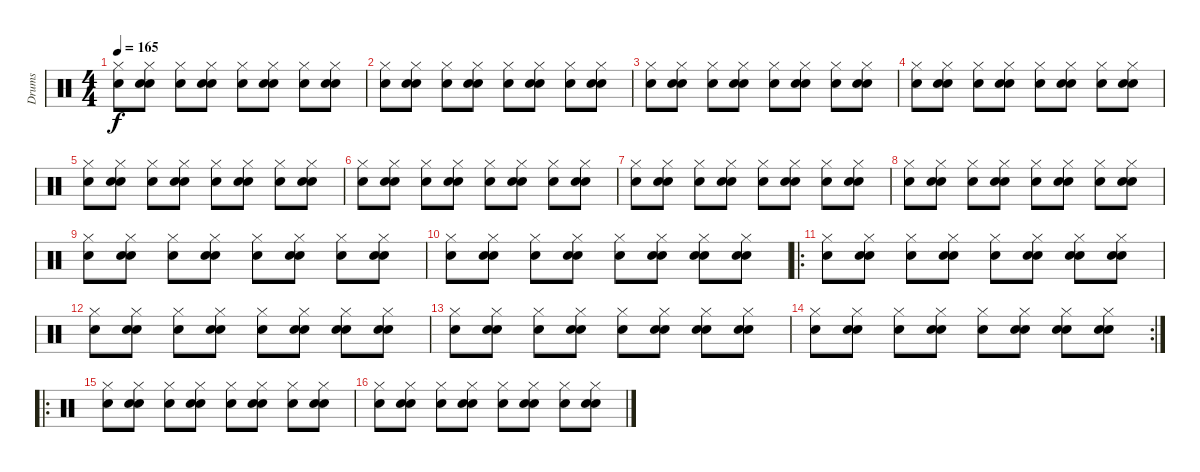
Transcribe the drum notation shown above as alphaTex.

\track ("Drums" "Drums") {instrument percussion}
\staff {score}
\articulation defaults
\ts (4 4)
\tempo 165
\clef neutral
\ks c
("Hi-Hat (closed)" "Electric Snare (hit)").8{dy f} ("Snare (hit) 2" "Electric Snare (hit)" "Hi-Hat (closed)").8 ("Hi-Hat (closed)" "Electric Snare (hit)").8 ("Snare (hit) 2" "Hi-Hat (closed)" "Electric Snare (hit)").8 ("Hi-Hat (closed)" "Electric Snare (hit)").8 ("Snare (hit) 2" "Hi-Hat (closed)" "Electric Snare (hit)").8 ("Hi-Hat (closed)" "Electric Snare (hit)").8 ("Snare (hit) 2" "Hi-Hat (closed)" "Electric Snare (hit)").8 |
("Hi-Hat (closed)" "Electric Snare (hit)").8 ("Snare (hit) 2" "Electric Snare (hit)" "Hi-Hat (closed)").8 ("Hi-Hat (closed)" "Electric Snare (hit)").8 ("Snare (hit) 2" "Hi-Hat (closed)" "Electric Snare (hit)").8 ("Hi-Hat (closed)" "Electric Snare (hit)").8 ("Snare (hit) 2" "Hi-Hat (closed)" "Electric Snare (hit)").8 ("Hi-Hat (closed)" "Electric Snare (hit)").8 ("Snare (hit) 2" "Hi-Hat (closed)" "Electric Snare (hit)").8 |
("Hi-Hat (closed)" "Electric Snare (hit)").8 ("Snare (hit) 2" "Electric Snare (hit)" "Hi-Hat (closed)").8 ("Hi-Hat (closed)" "Electric Snare (hit)").8 ("Snare (hit) 2" "Hi-Hat (closed)" "Electric Snare (hit)").8 ("Hi-Hat (closed)" "Electric Snare (hit)").8 ("Snare (hit) 2" "Hi-Hat (closed)" "Electric Snare (hit)").8 ("Hi-Hat (closed)" "Electric Snare (hit)").8 ("Snare (hit) 2" "Hi-Hat (closed)" "Electric Snare (hit)").8 |
("Hi-Hat (closed)" "Electric Snare (hit)").8 ("Snare (hit) 2" "Electric Snare (hit)" "Hi-Hat (closed)").8 ("Hi-Hat (closed)" "Electric Snare (hit)").8 ("Snare (hit) 2" "Hi-Hat (closed)" "Electric Snare (hit)").8 ("Hi-Hat (closed)" "Electric Snare (hit)").8 ("Snare (hit) 2" "Hi-Hat (closed)" "Electric Snare (hit)").8 ("Hi-Hat (closed)" "Electric Snare (hit)").8 ("Snare (hit) 2" "Hi-Hat (closed)" "Electric Snare (hit)").8 |
("Hi-Hat (closed)" "Electric Snare (hit)").8 ("Snare (hit) 2" "Electric Snare (hit)" "Hi-Hat (closed)").8 ("Hi-Hat (closed)" "Electric Snare (hit)").8 ("Snare (hit) 2" "Hi-Hat (closed)" "Electric Snare (hit)").8 ("Hi-Hat (closed)" "Electric Snare (hit)").8 ("Snare (hit) 2" "Hi-Hat (closed)" "Electric Snare (hit)").8 ("Hi-Hat (closed)" "Electric Snare (hit)").8 ("Snare (hit) 2" "Hi-Hat (closed)" "Electric Snare (hit)").8 |
("Hi-Hat (closed)" "Electric Snare (hit)").8 ("Snare (hit) 2" "Electric Snare (hit)" "Hi-Hat (closed)").8 ("Hi-Hat (closed)" "Electric Snare (hit)").8 ("Snare (hit) 2" "Hi-Hat (closed)" "Electric Snare (hit)").8 ("Hi-Hat (closed)" "Electric Snare (hit)").8 ("Snare (hit) 2" "Hi-Hat (closed)" "Electric Snare (hit)").8 ("Hi-Hat (closed)" "Electric Snare (hit)").8 ("Snare (hit) 2" "Hi-Hat (closed)" "Electric Snare (hit)").8 |
("Hi-Hat (closed)" "Electric Snare (hit)").8 ("Snare (hit) 2" "Electric Snare (hit)" "Hi-Hat (closed)").8 ("Hi-Hat (closed)" "Electric Snare (hit)").8 ("Snare (hit) 2" "Hi-Hat (closed)" "Electric Snare (hit)").8 ("Hi-Hat (closed)" "Electric Snare (hit)").8 ("Snare (hit) 2" "Hi-Hat (closed)" "Electric Snare (hit)").8 ("Hi-Hat (closed)" "Electric Snare (hit)").8 ("Snare (hit) 2" "Hi-Hat (closed)" "Electric Snare (hit)").8 |
("Hi-Hat (closed)" "Electric Snare (hit)").8 ("Snare (hit) 2" "Electric Snare (hit)" "Hi-Hat (closed)").8 ("Hi-Hat (closed)" "Electric Snare (hit)").8 ("Snare (hit) 2" "Hi-Hat (closed)" "Electric Snare (hit)").8 ("Hi-Hat (closed)" "Electric Snare (hit)").8 ("Snare (hit) 2" "Hi-Hat (closed)" "Electric Snare (hit)").8 ("Hi-Hat (closed)" "Electric Snare (hit)").8 ("Snare (hit) 2" "Hi-Hat (closed)" "Electric Snare (hit)").8 |
("Hi-Hat (closed)" "Electric Snare (hit)").8 ("Snare (hit) 2" "Electric Snare (hit)" "Hi-Hat (closed)").8 ("Hi-Hat (closed)" "Electric Snare (hit)").8 ("Snare (hit) 2" "Hi-Hat (closed)" "Electric Snare (hit)").8 ("Hi-Hat (closed)" "Electric Snare (hit)").8 ("Snare (hit) 2" "Hi-Hat (closed)" "Electric Snare (hit)").8 ("Hi-Hat (closed)" "Electric Snare (hit)").8 ("Snare (hit) 2" "Hi-Hat (closed)" "Electric Snare (hit)").8 |
("Hi-Hat (closed)" "Electric Snare (hit)").8 ("Snare (hit) 2" "Electric Snare (hit)" "Hi-Hat (closed)").8 ("Hi-Hat (closed)" "Electric Snare (hit)").8 ("Snare (hit) 2" "Hi-Hat (closed)" "Electric Snare (hit)").8 ("Hi-Hat (closed)" "Electric Snare (hit)").8 ("Snare (hit) 2" "Hi-Hat (closed)" "Electric Snare (hit)").8 ("Snare (hit) 2" "Hi-Hat (closed)" "Electric Snare (hit)").8 ("Snare (hit) 2" "Hi-Hat (closed)" "Electric Snare (hit)").8 |
\ro
("Hi-Hat (closed)" "Electric Snare (hit)").8 ("Snare (hit) 2" "Electric Snare (hit)" "Hi-Hat (closed)").8 ("Hi-Hat (closed)" "Electric Snare (hit)").8 ("Snare (hit) 2" "Hi-Hat (closed)" "Electric Snare (hit)").8 ("Hi-Hat (closed)" "Electric Snare (hit)").8 ("Snare (hit) 2" "Hi-Hat (closed)" "Electric Snare (hit)").8 ("Snare (hit) 2" "Hi-Hat (closed)" "Electric Snare (hit)").8 ("Snare (hit) 2" "Hi-Hat (closed)" "Electric Snare (hit)").8 |
("Hi-Hat (closed)" "Electric Snare (hit)").8 ("Snare (hit) 2" "Electric Snare (hit)" "Hi-Hat (closed)").8 ("Hi-Hat (closed)" "Electric Snare (hit)").8 ("Snare (hit) 2" "Hi-Hat (closed)" "Electric Snare (hit)").8 ("Hi-Hat (closed)" "Electric Snare (hit)").8 ("Snare (hit) 2" "Hi-Hat (closed)" "Electric Snare (hit)").8 ("Snare (hit) 2" "Hi-Hat (closed)" "Electric Snare (hit)").8 ("Snare (hit) 2" "Hi-Hat (closed)" "Electric Snare (hit)").8 |
("Hi-Hat (closed)" "Electric Snare (hit)").8 ("Snare (hit) 2" "Electric Snare (hit)" "Hi-Hat (closed)").8 ("Hi-Hat (closed)" "Electric Snare (hit)").8 ("Snare (hit) 2" "Hi-Hat (closed)" "Electric Snare (hit)").8 ("Hi-Hat (closed)" "Electric Snare (hit)").8 ("Snare (hit) 2" "Hi-Hat (closed)" "Electric Snare (hit)").8 ("Snare (hit) 2" "Hi-Hat (closed)" "Electric Snare (hit)").8 ("Snare (hit) 2" "Hi-Hat (closed)" "Electric Snare (hit)").8 |
\rc 2
("Hi-Hat (closed)" "Electric Snare (hit)").8 ("Snare (hit) 2" "Electric Snare (hit)" "Hi-Hat (closed)").8 ("Hi-Hat (closed)" "Electric Snare (hit)").8 ("Snare (hit) 2" "Hi-Hat (closed)" "Electric Snare (hit)").8 ("Hi-Hat (closed)" "Electric Snare (hit)").8 ("Snare (hit) 2" "Hi-Hat (closed)" "Electric Snare (hit)").8 ("Snare (hit) 2" "Hi-Hat (closed)" "Electric Snare (hit)").8 ("Snare (hit) 2" "Hi-Hat (closed)" "Electric Snare (hit)").8 |
\ro
("Hi-Hat (closed)" "Electric Snare (hit)").8 ("Snare (hit) 2" "Electric Snare (hit)" "Hi-Hat (closed)").8 ("Hi-Hat (closed)" "Electric Snare (hit)").8 ("Snare (hit) 2" "Hi-Hat (closed)" "Electric Snare (hit)").8 ("Hi-Hat (closed)" "Electric Snare (hit)").8 ("Snare (hit) 2" "Hi-Hat (closed)" "Electric Snare (hit)").8 ("Hi-Hat (closed)" "Electric Snare (hit)").8 ("Snare (hit) 2" "Hi-Hat (closed)" "Electric Snare (hit)").8 |
("Hi-Hat (closed)" "Electric Snare (hit)").8 ("Snare (hit) 2" "Electric Snare (hit)" "Hi-Hat (closed)").8 ("Hi-Hat (closed)" "Electric Snare (hit)").8 ("Snare (hit) 2" "Hi-Hat (closed)" "Electric Snare (hit)").8 ("Hi-Hat (closed)" "Electric Snare (hit)").8 ("Snare (hit) 2" "Hi-Hat (closed)" "Electric Snare (hit)").8 ("Hi-Hat (closed)" "Electric Snare (hit)").8 ("Snare (hit) 2" "Hi-Hat (closed)" "Electric Snare (hit)").8
